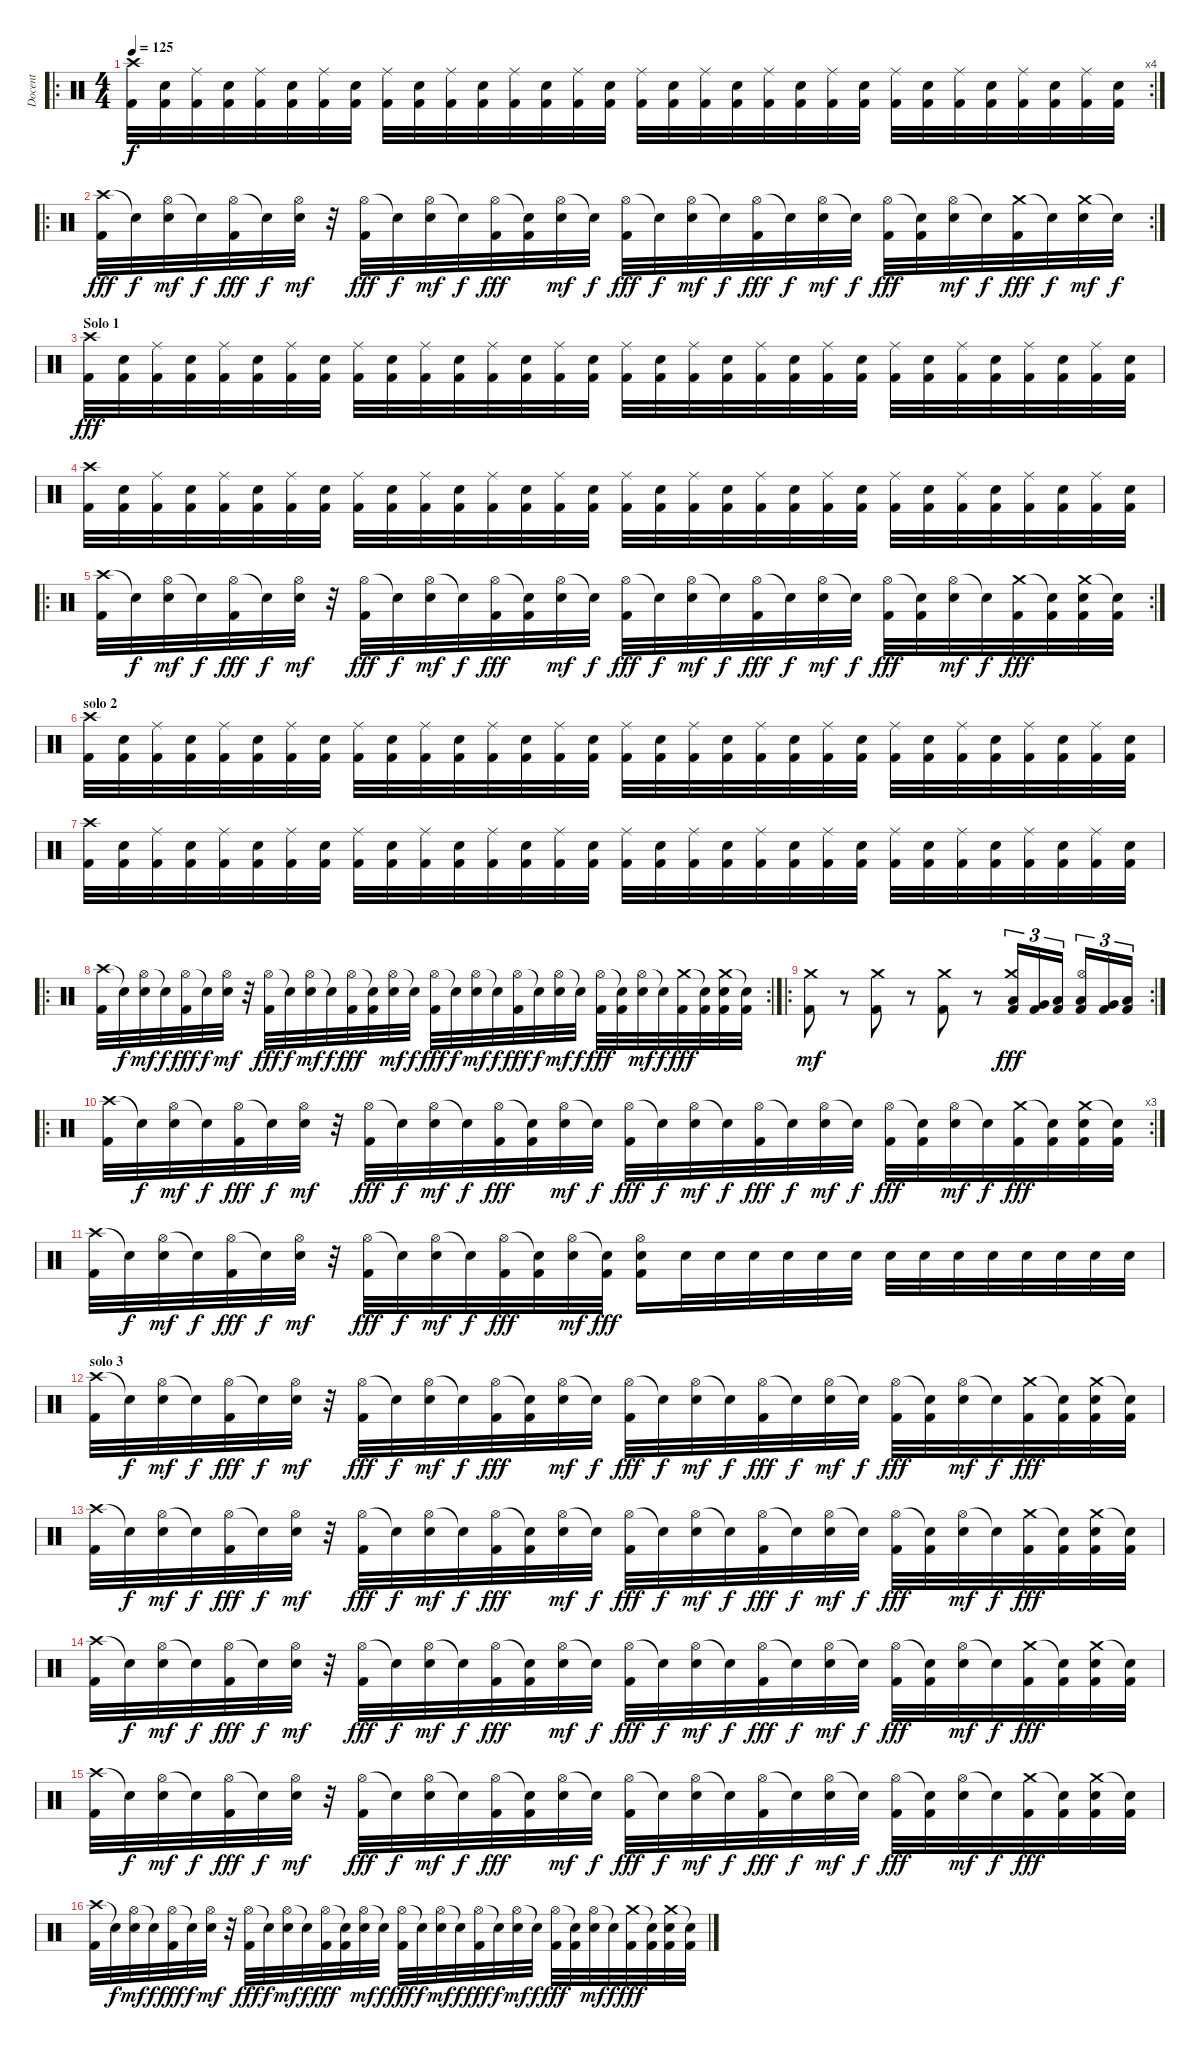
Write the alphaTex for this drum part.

\track ("Docent" "Docent") {instrument percussion}
\staff {score}
\articulation defaults
\ro
\rc 4
\ts (4 4)
\tempo 125
\clef neutral
\ks c
("Crash high (hit)" "Kick (hit) 2").32{dy f} ("Electric Snare (hit)" "Kick (hit) 2").32 ("Ride (middle)" "Kick (hit) 2").32 ("Electric Snare (hit)" "Kick (hit) 2").32 ("Ride (middle)" "Kick (hit) 2").32 ("Electric Snare (hit)" "Kick (hit) 2").32 ("Ride (middle)" "Kick (hit) 2").32 ("Electric Snare (hit)" "Kick (hit) 2").32 ("Ride (middle)" "Kick (hit) 2").32 ("Electric Snare (hit)" "Kick (hit) 2").32 ("Ride (middle)" "Kick (hit) 2").32 ("Electric Snare (hit)" "Kick (hit) 2").32 ("Ride (middle)" "Kick (hit) 2").32 ("Electric Snare (hit)" "Kick (hit) 2").32 ("Ride (middle)" "Kick (hit) 2").32 ("Electric Snare (hit)" "Kick (hit) 2").32 ("Ride (middle)" "Kick (hit) 2").32 ("Electric Snare (hit)" "Kick (hit) 2").32 ("Ride (middle)" "Kick (hit) 2").32 ("Electric Snare (hit)" "Kick (hit) 2").32 ("Ride (middle)" "Kick (hit) 2").32 ("Electric Snare (hit)" "Kick (hit) 2").32 ("Ride (middle)" "Kick (hit) 2").32 ("Electric Snare (hit)" "Kick (hit) 2").32 ("Ride (middle)" "Kick (hit) 2").32 ("Electric Snare (hit)" "Kick (hit) 2").32 ("Ride (middle)" "Kick (hit) 2").32 ("Electric Snare (hit)" "Kick (hit) 2").32 ("Ride (middle)" "Kick (hit) 2").32 ("Electric Snare (hit)" "Kick (hit) 2").32 ("Ride (middle)" "Kick (hit) 2").32 ("Electric Snare (hit)" "Kick (hit) 2").32 |
\ro
\rc 2
("Crash high (hit)" "Kick (hit) 2").32{dy fff} "Snare (hit)"{t}.32{dy f} ("Hi-Hat (open)" "Electric Snare (hit)").32{dy mf} "Snare (hit)"{t}.32{dy f} ("Hi-Hat (open)" "Kick (hit) 2").32{dy fff} "Snare (hit)"{t}.32{dy f} ("Hi-Hat (open)" "Electric Snare (hit)").32{dy mf} r.32 ("Hi-Hat (open)" "Kick (hit) 2").32{dy fff} "Snare (hit)"{t}.32{dy f} ("Hi-Hat (open)" "Electric Snare (hit)").32{dy mf} "Snare (hit)"{t}.32{dy f} ("Hi-Hat (open)" "Kick (hit) 2").32{dy fff} ("Snare (hit)"{t} "Kick (hit) 2").32 ("Hi-Hat (open)" "Electric Snare (hit)").32{dy mf} "Snare (hit)"{t}.32{dy f} ("Hi-Hat (open)" "Kick (hit) 2").32{dy fff} "Snare (hit)"{t}.32{dy f} ("Hi-Hat (open)" "Electric Snare (hit)").32{dy mf} "Snare (hit)"{t}.32{dy f} ("Hi-Hat (open)" "Kick (hit) 2").32{dy fff} "Snare (hit)"{t}.32{dy f} ("Hi-Hat (open)" "Electric Snare (hit)").32{dy mf} "Snare (hit)"{t}.32{dy f} ("Hi-Hat (open)" "Kick (hit) 2").32{dy fff} ("Snare (hit)"{t} "Kick (hit) 2").32 ("Hi-Hat (open)" "Electric Snare (hit)").32{dy mf} "Snare (hit)"{t}.32{dy f} ("Crash medium (hit)" "Kick (hit) 2").32{dy fff} "Snare (hit)"{t}.32{dy f} ("Crash medium (hit)" "Electric Snare (hit)").32{dy mf} "Snare (hit)"{t}.32{dy f} |
\section ("" "Solo 1")
("Crash high (hit)" "Kick (hit) 2").32{dy fff} ("Electric Snare (hit)" "Kick (hit) 2").32 ("Ride (middle)" "Kick (hit) 2").32 ("Electric Snare (hit)" "Kick (hit) 2").32 ("Ride (middle)" "Kick (hit) 2").32 ("Electric Snare (hit)" "Kick (hit) 2").32 ("Ride (middle)" "Kick (hit) 2").32 ("Electric Snare (hit)" "Kick (hit) 2").32 ("Ride (middle)" "Kick (hit) 2").32 ("Electric Snare (hit)" "Kick (hit) 2").32 ("Ride (middle)" "Kick (hit) 2").32 ("Electric Snare (hit)" "Kick (hit) 2").32 ("Ride (middle)" "Kick (hit) 2").32 ("Electric Snare (hit)" "Kick (hit) 2").32 ("Ride (middle)" "Kick (hit) 2").32 ("Electric Snare (hit)" "Kick (hit) 2").32 ("Ride (middle)" "Kick (hit) 2").32 ("Electric Snare (hit)" "Kick (hit) 2").32 ("Ride (middle)" "Kick (hit) 2").32 ("Electric Snare (hit)" "Kick (hit) 2").32 ("Ride (middle)" "Kick (hit) 2").32 ("Electric Snare (hit)" "Kick (hit) 2").32 ("Ride (middle)" "Kick (hit) 2").32 ("Electric Snare (hit)" "Kick (hit) 2").32 ("Ride (middle)" "Kick (hit) 2").32 ("Electric Snare (hit)" "Kick (hit) 2").32 ("Ride (middle)" "Kick (hit) 2").32 ("Electric Snare (hit)" "Kick (hit) 2").32 ("Ride (middle)" "Kick (hit) 2").32 ("Electric Snare (hit)" "Kick (hit) 2").32 ("Ride (middle)" "Kick (hit) 2").32 ("Electric Snare (hit)" "Kick (hit) 2").32 |
("Crash high (hit)" "Kick (hit) 2").32 ("Electric Snare (hit)" "Kick (hit) 2").32 ("Ride (middle)" "Kick (hit) 2").32 ("Electric Snare (hit)" "Kick (hit) 2").32 ("Ride (middle)" "Kick (hit) 2").32 ("Electric Snare (hit)" "Kick (hit) 2").32 ("Ride (middle)" "Kick (hit) 2").32 ("Electric Snare (hit)" "Kick (hit) 2").32 ("Ride (middle)" "Kick (hit) 2").32 ("Electric Snare (hit)" "Kick (hit) 2").32 ("Ride (middle)" "Kick (hit) 2").32 ("Electric Snare (hit)" "Kick (hit) 2").32 ("Ride (middle)" "Kick (hit) 2").32 ("Electric Snare (hit)" "Kick (hit) 2").32 ("Ride (middle)" "Kick (hit) 2").32 ("Electric Snare (hit)" "Kick (hit) 2").32 ("Ride (middle)" "Kick (hit) 2").32 ("Electric Snare (hit)" "Kick (hit) 2").32 ("Ride (middle)" "Kick (hit) 2").32 ("Electric Snare (hit)" "Kick (hit) 2").32 ("Ride (middle)" "Kick (hit) 2").32 ("Electric Snare (hit)" "Kick (hit) 2").32 ("Ride (middle)" "Kick (hit) 2").32 ("Electric Snare (hit)" "Kick (hit) 2").32 ("Ride (middle)" "Kick (hit) 2").32 ("Electric Snare (hit)" "Kick (hit) 2").32 ("Ride (middle)" "Kick (hit) 2").32 ("Electric Snare (hit)" "Kick (hit) 2").32 ("Ride (middle)" "Kick (hit) 2").32 ("Electric Snare (hit)" "Kick (hit) 2").32 ("Ride (middle)" "Kick (hit) 2").32 ("Electric Snare (hit)" "Kick (hit) 2").32 |
\ro
\rc 2
("Crash high (hit)" "Kick (hit) 2").32 "Snare (hit)"{t}.32{dy f} ("Hi-Hat (open)" "Electric Snare (hit)").32{dy mf} "Snare (hit)"{t}.32{dy f} ("Hi-Hat (open)" "Kick (hit) 2").32{dy fff} "Snare (hit)"{t}.32{dy f} ("Hi-Hat (open)" "Electric Snare (hit)").32{dy mf} r.32 ("Hi-Hat (open)" "Kick (hit) 2").32{dy fff} "Snare (hit)"{t}.32{dy f} ("Hi-Hat (open)" "Electric Snare (hit)").32{dy mf} "Snare (hit)"{t}.32{dy f} ("Hi-Hat (open)" "Kick (hit) 2").32{dy fff} ("Snare (hit)"{t} "Kick (hit) 2").32 ("Hi-Hat (open)" "Electric Snare (hit)").32{dy mf} "Snare (hit)"{t}.32{dy f} ("Hi-Hat (open)" "Kick (hit) 2").32{dy fff} "Snare (hit)"{t}.32{dy f} ("Hi-Hat (open)" "Electric Snare (hit)").32{dy mf} "Snare (hit)"{t}.32{dy f} ("Hi-Hat (open)" "Kick (hit) 2").32{dy fff} "Snare (hit)"{t}.32{dy f} ("Hi-Hat (open)" "Electric Snare (hit)").32{dy mf} "Snare (hit)"{t}.32{dy f} ("Hi-Hat (open)" "Kick (hit) 2").32{dy fff} ("Snare (hit)"{t} "Kick (hit) 2").32 ("Hi-Hat (open)" "Electric Snare (hit)").32{dy mf} "Snare (hit)"{t}.32{dy f} ("Crash medium (hit)" "Kick (hit) 2").32{dy fff} ("Snare (hit)"{t} "Kick (hit) 2").32 ("Crash medium (hit)" "Electric Snare (hit)" "Kick (hit) 2").32 ("Snare (hit)"{t} "Kick (hit) 2").32 |
\section ("" "solo 2")
("Crash high (hit)" "Kick (hit) 2").32 ("Electric Snare (hit)" "Kick (hit) 2").32 ("Ride (middle)" "Kick (hit) 2").32 ("Electric Snare (hit)" "Kick (hit) 2").32 ("Ride (middle)" "Kick (hit) 2").32 ("Electric Snare (hit)" "Kick (hit) 2").32 ("Ride (middle)" "Kick (hit) 2").32 ("Electric Snare (hit)" "Kick (hit) 2").32 ("Ride (middle)" "Kick (hit) 2").32 ("Electric Snare (hit)" "Kick (hit) 2").32 ("Ride (middle)" "Kick (hit) 2").32 ("Electric Snare (hit)" "Kick (hit) 2").32 ("Ride (middle)" "Kick (hit) 2").32 ("Electric Snare (hit)" "Kick (hit) 2").32 ("Ride (middle)" "Kick (hit) 2").32 ("Electric Snare (hit)" "Kick (hit) 2").32 ("Ride (middle)" "Kick (hit) 2").32 ("Electric Snare (hit)" "Kick (hit) 2").32 ("Ride (middle)" "Kick (hit) 2").32 ("Electric Snare (hit)" "Kick (hit) 2").32 ("Ride (middle)" "Kick (hit) 2").32 ("Electric Snare (hit)" "Kick (hit) 2").32 ("Ride (middle)" "Kick (hit) 2").32 ("Electric Snare (hit)" "Kick (hit) 2").32 ("Ride (middle)" "Kick (hit) 2").32 ("Electric Snare (hit)" "Kick (hit) 2").32 ("Ride (middle)" "Kick (hit) 2").32 ("Electric Snare (hit)" "Kick (hit) 2").32 ("Ride (middle)" "Kick (hit) 2").32 ("Electric Snare (hit)" "Kick (hit) 2").32 ("Ride (middle)" "Kick (hit) 2").32 ("Electric Snare (hit)" "Kick (hit) 2").32 |
("Crash high (hit)" "Kick (hit) 2").32 ("Electric Snare (hit)" "Kick (hit) 2").32 ("Ride (middle)" "Kick (hit) 2").32 ("Electric Snare (hit)" "Kick (hit) 2").32 ("Ride (middle)" "Kick (hit) 2").32 ("Electric Snare (hit)" "Kick (hit) 2").32 ("Ride (middle)" "Kick (hit) 2").32 ("Electric Snare (hit)" "Kick (hit) 2").32 ("Ride (middle)" "Kick (hit) 2").32 ("Electric Snare (hit)" "Kick (hit) 2").32 ("Ride (middle)" "Kick (hit) 2").32 ("Electric Snare (hit)" "Kick (hit) 2").32 ("Ride (middle)" "Kick (hit) 2").32 ("Electric Snare (hit)" "Kick (hit) 2").32 ("Ride (middle)" "Kick (hit) 2").32 ("Electric Snare (hit)" "Kick (hit) 2").32 ("Ride (middle)" "Kick (hit) 2").32 ("Electric Snare (hit)" "Kick (hit) 2").32 ("Ride (middle)" "Kick (hit) 2").32 ("Electric Snare (hit)" "Kick (hit) 2").32 ("Ride (middle)" "Kick (hit) 2").32 ("Electric Snare (hit)" "Kick (hit) 2").32 ("Ride (middle)" "Kick (hit) 2").32 ("Electric Snare (hit)" "Kick (hit) 2").32 ("Ride (middle)" "Kick (hit) 2").32 ("Electric Snare (hit)" "Kick (hit) 2").32 ("Ride (middle)" "Kick (hit) 2").32 ("Electric Snare (hit)" "Kick (hit) 2").32 ("Ride (middle)" "Kick (hit) 2").32 ("Electric Snare (hit)" "Kick (hit) 2").32 ("Ride (middle)" "Kick (hit) 2").32 ("Electric Snare (hit)" "Kick (hit) 2").32 |
\ro
\rc 2
("Crash high (hit)" "Kick (hit) 2").32 "Snare (hit)"{t}.32{dy f} ("Hi-Hat (open)" "Electric Snare (hit)").32{dy mf} "Snare (hit)"{t}.32{dy f} ("Hi-Hat (open)" "Kick (hit) 2").32{dy fff} "Snare (hit)"{t}.32{dy f} ("Hi-Hat (open)" "Electric Snare (hit)").32{dy mf} r.32 ("Hi-Hat (open)" "Kick (hit) 2").32{dy fff} "Snare (hit)"{t}.32{dy f} ("Hi-Hat (open)" "Electric Snare (hit)").32{dy mf} "Snare (hit)"{t}.32{dy f} ("Hi-Hat (open)" "Kick (hit) 2").32{dy fff} ("Snare (hit)"{t} "Kick (hit) 2").32 ("Hi-Hat (open)" "Electric Snare (hit)").32{dy mf} "Snare (hit)"{t}.32{dy f} ("Hi-Hat (open)" "Kick (hit) 2").32{dy fff} "Snare (hit)"{t}.32{dy f} ("Hi-Hat (open)" "Electric Snare (hit)").32{dy mf} "Snare (hit)"{t}.32{dy f} ("Hi-Hat (open)" "Kick (hit) 2").32{dy fff} "Snare (hit)"{t}.32{dy f} ("Hi-Hat (open)" "Electric Snare (hit)").32{dy mf} "Snare (hit)"{t}.32{dy f} ("Hi-Hat (open)" "Kick (hit) 2").32{dy fff} ("Snare (hit)"{t} "Kick (hit) 2").32 ("Hi-Hat (open)" "Electric Snare (hit)").32{dy mf} "Snare (hit)"{t}.32{dy f} ("Crash medium (hit)" "Kick (hit) 2").32{dy fff} ("Snare (hit)"{t} "Kick (hit) 2").32 ("Crash medium (hit)" "Electric Snare (hit)" "Kick (hit) 2").32 ("Snare (hit)"{t} "Kick (hit) 2").32 |
\ro
\rc 2
("Kick (hit) 2" "Crash medium (hit)").8{dy mf} r.8 ("Kick (hit) 2" "Crash medium (hit)").8 r.8 ("Kick (hit) 2" "Crash medium (hit)").8 r.8 ("Crash medium (hit)" "Kick (hit) 2" "Low Tom (hit)").16{tu (3 2) dy fff} ("Kick (hit) 2" "Very Low Tom (hit)").16{tu (3 2)} ("Kick (hit) 2" "Low Floor Tom (hit)").16{tu (3 2)} ("Hi-Hat (open)" "Kick (hit) 2" "Low Tom (hit)").16{tu (3 2)} ("Kick (hit) 2" "Very Low Tom (hit)").16{tu (3 2)} ("Kick (hit) 2" "Low Floor Tom (hit)").16{tu (3 2)} |
\ro
\rc 3
("Crash high (hit)" "Kick (hit) 2").32 "Snare (hit)"{t}.32{dy f} ("Hi-Hat (open)" "Electric Snare (hit)").32{dy mf} "Snare (hit)"{t}.32{dy f} ("Hi-Hat (open)" "Kick (hit) 2").32{dy fff} "Snare (hit)"{t}.32{dy f} ("Hi-Hat (open)" "Electric Snare (hit)").32{dy mf} r.32 ("Hi-Hat (open)" "Kick (hit) 2").32{dy fff} "Snare (hit)"{t}.32{dy f} ("Hi-Hat (open)" "Electric Snare (hit)").32{dy mf} "Snare (hit)"{t}.32{dy f} ("Hi-Hat (open)" "Kick (hit) 2").32{dy fff} ("Snare (hit)"{t} "Kick (hit) 2").32 ("Hi-Hat (open)" "Electric Snare (hit)").32{dy mf} "Snare (hit)"{t}.32{dy f} ("Hi-Hat (open)" "Kick (hit) 2").32{dy fff} "Snare (hit)"{t}.32{dy f} ("Hi-Hat (open)" "Electric Snare (hit)").32{dy mf} "Snare (hit)"{t}.32{dy f} ("Hi-Hat (open)" "Kick (hit) 2").32{dy fff} "Snare (hit)"{t}.32{dy f} ("Hi-Hat (open)" "Electric Snare (hit)").32{dy mf} "Snare (hit)"{t}.32{dy f} ("Hi-Hat (open)" "Kick (hit) 2").32{dy fff} ("Snare (hit)"{t} "Kick (hit) 2").32 ("Hi-Hat (open)" "Electric Snare (hit)").32{dy mf} "Snare (hit)"{t}.32{dy f} ("Crash medium (hit)" "Kick (hit) 2").32{dy fff} ("Snare (hit)"{t} "Kick (hit) 2").32 ("Crash medium (hit)" "Electric Snare (hit)" "Kick (hit) 2").32 ("Snare (hit)"{t} "Kick (hit) 2").32 |
("Crash high (hit)" "Kick (hit) 2").32 "Snare (hit)"{t}.32{dy f} ("Hi-Hat (open)" "Electric Snare (hit)").32{dy mf} "Snare (hit)"{t}.32{dy f} ("Hi-Hat (open)" "Kick (hit) 2").32{dy fff} "Snare (hit)"{t}.32{dy f} ("Hi-Hat (open)" "Electric Snare (hit)").32{dy mf} r.32 ("Hi-Hat (open)" "Kick (hit) 2").32{dy fff} "Snare (hit)"{t}.32{dy f} ("Hi-Hat (open)" "Electric Snare (hit)").32{dy mf} "Snare (hit)"{t}.32{dy f} ("Hi-Hat (open)" "Kick (hit) 2").32{dy fff} ("Snare (hit)"{t} "Kick (hit) 2").32 ("Hi-Hat (open)" "Electric Snare (hit)").32{dy mf} ("Snare (hit)"{t} "Kick (hit) 2").32{dy fff} ("Hi-Hat (open)" "Electric Snare (hit)" "Kick (hit) 2").16 "Electric Snare (hit)".32 "Electric Snare (hit)".32 "Electric Snare (hit)".32 "Electric Snare (hit)".32 "Electric Snare (hit)".32 "Electric Snare (hit)".32 "Electric Snare (hit)".32 "Electric Snare (hit)".32 "Electric Snare (hit)".32 "Electric Snare (hit)".32 "Electric Snare (hit)".32 "Electric Snare (hit)".32 "Electric Snare (hit)".32 "Electric Snare (hit)".32 |
\section ("" "solo 3")
("Crash high (hit)" "Kick (hit) 2").32 "Snare (hit)"{t}.32{dy f} ("Hi-Hat (open)" "Electric Snare (hit)").32{dy mf} "Snare (hit)"{t}.32{dy f} ("Hi-Hat (open)" "Kick (hit) 2").32{dy fff} "Snare (hit)"{t}.32{dy f} ("Hi-Hat (open)" "Electric Snare (hit)").32{dy mf} r.32 ("Hi-Hat (open)" "Kick (hit) 2").32{dy fff} "Snare (hit)"{t}.32{dy f} ("Hi-Hat (open)" "Electric Snare (hit)").32{dy mf} "Snare (hit)"{t}.32{dy f} ("Hi-Hat (open)" "Kick (hit) 2").32{dy fff} ("Snare (hit)"{t} "Kick (hit) 2").32 ("Hi-Hat (open)" "Electric Snare (hit)").32{dy mf} "Snare (hit)"{t}.32{dy f} ("Hi-Hat (open)" "Kick (hit) 2").32{dy fff} "Snare (hit)"{t}.32{dy f} ("Hi-Hat (open)" "Electric Snare (hit)").32{dy mf} "Snare (hit)"{t}.32{dy f} ("Hi-Hat (open)" "Kick (hit) 2").32{dy fff} "Snare (hit)"{t}.32{dy f} ("Hi-Hat (open)" "Electric Snare (hit)").32{dy mf} "Snare (hit)"{t}.32{dy f} ("Hi-Hat (open)" "Kick (hit) 2").32{dy fff} ("Snare (hit)"{t} "Kick (hit) 2").32 ("Hi-Hat (open)" "Electric Snare (hit)").32{dy mf} "Snare (hit)"{t}.32{dy f} ("Crash medium (hit)" "Kick (hit) 2").32{dy fff} ("Snare (hit)"{t} "Kick (hit) 2").32 ("Crash medium (hit)" "Electric Snare (hit)" "Kick (hit) 2").32 ("Snare (hit)"{t} "Kick (hit) 2").32 |
("Crash high (hit)" "Kick (hit) 2").32 "Snare (hit)"{t}.32{dy f} ("Hi-Hat (open)" "Electric Snare (hit)").32{dy mf} "Snare (hit)"{t}.32{dy f} ("Hi-Hat (open)" "Kick (hit) 2").32{dy fff} "Snare (hit)"{t}.32{dy f} ("Hi-Hat (open)" "Electric Snare (hit)").32{dy mf} r.32 ("Hi-Hat (open)" "Kick (hit) 2").32{dy fff} "Snare (hit)"{t}.32{dy f} ("Hi-Hat (open)" "Electric Snare (hit)").32{dy mf} "Snare (hit)"{t}.32{dy f} ("Hi-Hat (open)" "Kick (hit) 2").32{dy fff} ("Snare (hit)"{t} "Kick (hit) 2").32 ("Hi-Hat (open)" "Electric Snare (hit)").32{dy mf} "Snare (hit)"{t}.32{dy f} ("Hi-Hat (open)" "Kick (hit) 2").32{dy fff} "Snare (hit)"{t}.32{dy f} ("Hi-Hat (open)" "Electric Snare (hit)").32{dy mf} "Snare (hit)"{t}.32{dy f} ("Hi-Hat (open)" "Kick (hit) 2").32{dy fff} "Snare (hit)"{t}.32{dy f} ("Hi-Hat (open)" "Electric Snare (hit)").32{dy mf} "Snare (hit)"{t}.32{dy f} ("Hi-Hat (open)" "Kick (hit) 2").32{dy fff} ("Snare (hit)"{t} "Kick (hit) 2").32 ("Hi-Hat (open)" "Electric Snare (hit)").32{dy mf} "Snare (hit)"{t}.32{dy f} ("Crash medium (hit)" "Kick (hit) 2").32{dy fff} ("Snare (hit)"{t} "Kick (hit) 2").32 ("Crash medium (hit)" "Electric Snare (hit)" "Kick (hit) 2").32 ("Snare (hit)"{t} "Kick (hit) 2").32 |
("Crash high (hit)" "Kick (hit) 2").32 "Snare (hit)"{t}.32{dy f} ("Hi-Hat (open)" "Electric Snare (hit)").32{dy mf} "Snare (hit)"{t}.32{dy f} ("Hi-Hat (open)" "Kick (hit) 2").32{dy fff} "Snare (hit)"{t}.32{dy f} ("Hi-Hat (open)" "Electric Snare (hit)").32{dy mf} r.32 ("Hi-Hat (open)" "Kick (hit) 2").32{dy fff} "Snare (hit)"{t}.32{dy f} ("Hi-Hat (open)" "Electric Snare (hit)").32{dy mf} "Snare (hit)"{t}.32{dy f} ("Hi-Hat (open)" "Kick (hit) 2").32{dy fff} ("Snare (hit)"{t} "Kick (hit) 2").32 ("Hi-Hat (open)" "Electric Snare (hit)").32{dy mf} "Snare (hit)"{t}.32{dy f} ("Hi-Hat (open)" "Kick (hit) 2").32{dy fff} "Snare (hit)"{t}.32{dy f} ("Hi-Hat (open)" "Electric Snare (hit)").32{dy mf} "Snare (hit)"{t}.32{dy f} ("Hi-Hat (open)" "Kick (hit) 2").32{dy fff} "Snare (hit)"{t}.32{dy f} ("Hi-Hat (open)" "Electric Snare (hit)").32{dy mf} "Snare (hit)"{t}.32{dy f} ("Hi-Hat (open)" "Kick (hit) 2").32{dy fff} ("Snare (hit)"{t} "Kick (hit) 2").32 ("Hi-Hat (open)" "Electric Snare (hit)").32{dy mf} "Snare (hit)"{t}.32{dy f} ("Crash medium (hit)" "Kick (hit) 2").32{dy fff} ("Snare (hit)"{t} "Kick (hit) 2").32 ("Crash medium (hit)" "Electric Snare (hit)" "Kick (hit) 2").32 ("Snare (hit)"{t} "Kick (hit) 2").32 |
("Crash high (hit)" "Kick (hit) 2").32 "Snare (hit)"{t}.32{dy f} ("Hi-Hat (open)" "Electric Snare (hit)").32{dy mf} "Snare (hit)"{t}.32{dy f} ("Hi-Hat (open)" "Kick (hit) 2").32{dy fff} "Snare (hit)"{t}.32{dy f} ("Hi-Hat (open)" "Electric Snare (hit)").32{dy mf} r.32 ("Hi-Hat (open)" "Kick (hit) 2").32{dy fff} "Snare (hit)"{t}.32{dy f} ("Hi-Hat (open)" "Electric Snare (hit)").32{dy mf} "Snare (hit)"{t}.32{dy f} ("Hi-Hat (open)" "Kick (hit) 2").32{dy fff} ("Snare (hit)"{t} "Kick (hit) 2").32 ("Hi-Hat (open)" "Electric Snare (hit)").32{dy mf} "Snare (hit)"{t}.32{dy f} ("Hi-Hat (open)" "Kick (hit) 2").32{dy fff} "Snare (hit)"{t}.32{dy f} ("Hi-Hat (open)" "Electric Snare (hit)").32{dy mf} "Snare (hit)"{t}.32{dy f} ("Hi-Hat (open)" "Kick (hit) 2").32{dy fff} "Snare (hit)"{t}.32{dy f} ("Hi-Hat (open)" "Electric Snare (hit)").32{dy mf} "Snare (hit)"{t}.32{dy f} ("Hi-Hat (open)" "Kick (hit) 2").32{dy fff} ("Snare (hit)"{t} "Kick (hit) 2").32 ("Hi-Hat (open)" "Electric Snare (hit)").32{dy mf} "Snare (hit)"{t}.32{dy f} ("Crash medium (hit)" "Kick (hit) 2").32{dy fff} ("Snare (hit)"{t} "Kick (hit) 2").32 ("Crash medium (hit)" "Electric Snare (hit)" "Kick (hit) 2").32 ("Snare (hit)"{t} "Kick (hit) 2").32 |
("Crash high (hit)" "Kick (hit) 2").32 "Snare (hit)"{t}.32{dy f} ("Hi-Hat (open)" "Electric Snare (hit)").32{dy mf} "Snare (hit)"{t}.32{dy f} ("Hi-Hat (open)" "Kick (hit) 2").32{dy fff} "Snare (hit)"{t}.32{dy f} ("Hi-Hat (open)" "Electric Snare (hit)").32{dy mf} r.32 ("Hi-Hat (open)" "Kick (hit) 2").32{dy fff} "Snare (hit)"{t}.32{dy f} ("Hi-Hat (open)" "Electric Snare (hit)").32{dy mf} "Snare (hit)"{t}.32{dy f} ("Hi-Hat (open)" "Kick (hit) 2").32{dy fff} ("Snare (hit)"{t} "Kick (hit) 2").32 ("Hi-Hat (open)" "Electric Snare (hit)").32{dy mf} "Snare (hit)"{t}.32{dy f} ("Hi-Hat (open)" "Kick (hit) 2").32{dy fff} "Snare (hit)"{t}.32{dy f} ("Hi-Hat (open)" "Electric Snare (hit)").32{dy mf} "Snare (hit)"{t}.32{dy f} ("Hi-Hat (open)" "Kick (hit) 2").32{dy fff} "Snare (hit)"{t}.32{dy f} ("Hi-Hat (open)" "Electric Snare (hit)").32{dy mf} "Snare (hit)"{t}.32{dy f} ("Hi-Hat (open)" "Kick (hit) 2").32{dy fff} ("Snare (hit)"{t} "Kick (hit) 2").32 ("Hi-Hat (open)" "Electric Snare (hit)").32{dy mf} "Snare (hit)"{t}.32{dy f} ("Crash medium (hit)" "Kick (hit) 2").32{dy fff} ("Snare (hit)"{t} "Kick (hit) 2").32 ("Crash medium (hit)" "Electric Snare (hit)" "Kick (hit) 2").32 ("Snare (hit)"{t} "Kick (hit) 2").32
